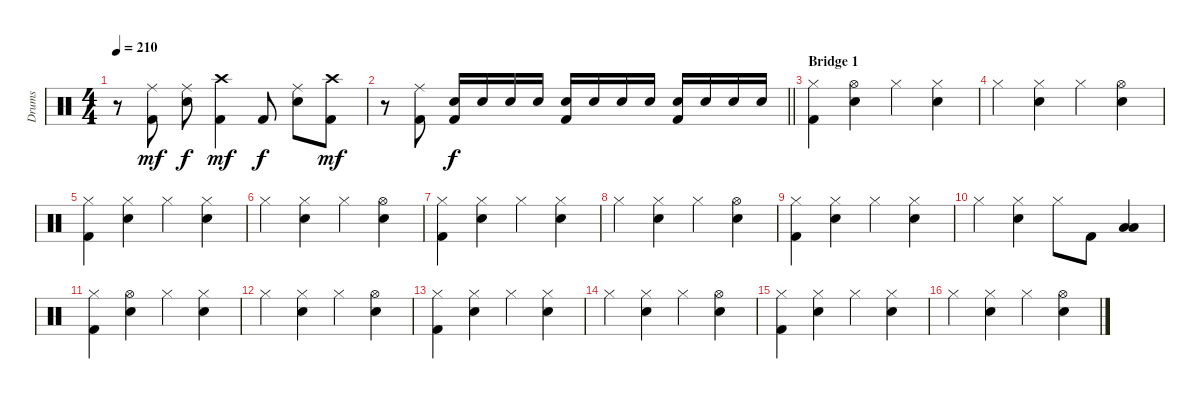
\track ("Drums" "Drums") {instrument percussion}
\staff {score}
\articulation defaults
\ts (4 4)
\tempo 210
\clef neutral
\ks c
r.8{dy mf} ("Ride (middle)" "Kick (hit) 2").8 ("Ride (middle)" "Snare (hit) 2").8{dy f} ("Crash high (hit)" "Kick (hit) 2").4{dy mf} "Kick (hit) 2".8{dy f} ("Ride (middle)" "Snare (hit) 2").8 ("Crash high (hit)" "Kick (hit) 2").8{dy mf} |
\barLineRight lightlight
r.8 ("Ride (middle)" "Kick (hit) 2").8 ("Snare (hit) 2" "Kick (hit) 2").16{dy f} "Snare (hit) 2".16 "Snare (hit) 2".16 "Snare (hit) 2".16 ("Snare (hit) 2" "Kick (hit) 2").16 "Snare (hit) 2".16 "Snare (hit) 2".16 "Snare (hit) 2".16 ("Snare (hit) 2" "Kick (hit) 2").16 "Snare (hit) 2".16 "Snare (hit) 2".16 "Snare (hit) 2".16 |
\section ("" "Bridge 1")
("Hi-Hat (closed)" "Kick (hit) 2").4 ("Hi-Hat (open)" "Snare (hit) 2").4 "Hi-Hat (closed)".4 ("Hi-Hat (closed)" "Snare (hit) 2").4 |
"Hi-Hat (closed)".4 ("Hi-Hat (closed)" "Snare (hit) 2").4 "Hi-Hat (closed)".4 ("Hi-Hat (open)" "Snare (hit) 2").4 |
("Hi-Hat (closed)" "Kick (hit) 2").4 ("Hi-Hat (closed)" "Snare (hit) 2").4 "Hi-Hat (closed)".4 ("Hi-Hat (closed)" "Snare (hit) 2").4 |
"Hi-Hat (closed)".4 ("Hi-Hat (closed)" "Snare (hit) 2").4 "Hi-Hat (closed)".4 ("Hi-Hat (open)" "Snare (hit) 2").4 |
("Hi-Hat (closed)" "Kick (hit) 2").4 ("Hi-Hat (closed)" "Snare (hit) 2").4 "Hi-Hat (closed)".4 ("Hi-Hat (closed)" "Snare (hit) 2").4 |
"Hi-Hat (closed)".4 ("Hi-Hat (closed)" "Snare (hit) 2").4 "Hi-Hat (closed)".4 ("Hi-Hat (open)" "Snare (hit) 2").4 |
("Hi-Hat (closed)" "Kick (hit) 2").4 ("Hi-Hat (closed)" "Snare (hit) 2").4 "Hi-Hat (closed)".4 ("Hi-Hat (closed)" "Snare (hit) 2").4 |
"Hi-Hat (closed)".4 ("Hi-Hat (closed)" "Snare (hit) 2").4 "Hi-Hat (closed)".8 "Kick (hit) 2".8 ("Low Tom (hit)" "Low Floor Tom (hit)").4 |
("Hi-Hat (closed)" "Kick (hit) 2").4 ("Hi-Hat (open)" "Snare (hit) 2").4 "Hi-Hat (closed)".4 ("Hi-Hat (closed)" "Snare (hit) 2").4 |
"Hi-Hat (closed)".4 ("Hi-Hat (closed)" "Snare (hit) 2").4 "Hi-Hat (closed)".4 ("Hi-Hat (open)" "Snare (hit) 2").4 |
("Hi-Hat (closed)" "Kick (hit) 2").4 ("Hi-Hat (closed)" "Snare (hit) 2").4 "Hi-Hat (closed)".4 ("Hi-Hat (closed)" "Snare (hit) 2").4 |
"Hi-Hat (closed)".4 ("Hi-Hat (closed)" "Snare (hit) 2").4 "Hi-Hat (closed)".4 ("Hi-Hat (open)" "Snare (hit) 2").4 |
("Hi-Hat (closed)" "Kick (hit) 2").4 ("Hi-Hat (closed)" "Snare (hit) 2").4 "Hi-Hat (closed)".4 ("Hi-Hat (closed)" "Snare (hit) 2").4 |
"Hi-Hat (closed)".4 ("Hi-Hat (closed)" "Snare (hit) 2").4 "Hi-Hat (closed)".4 ("Hi-Hat (open)" "Snare (hit) 2").4
